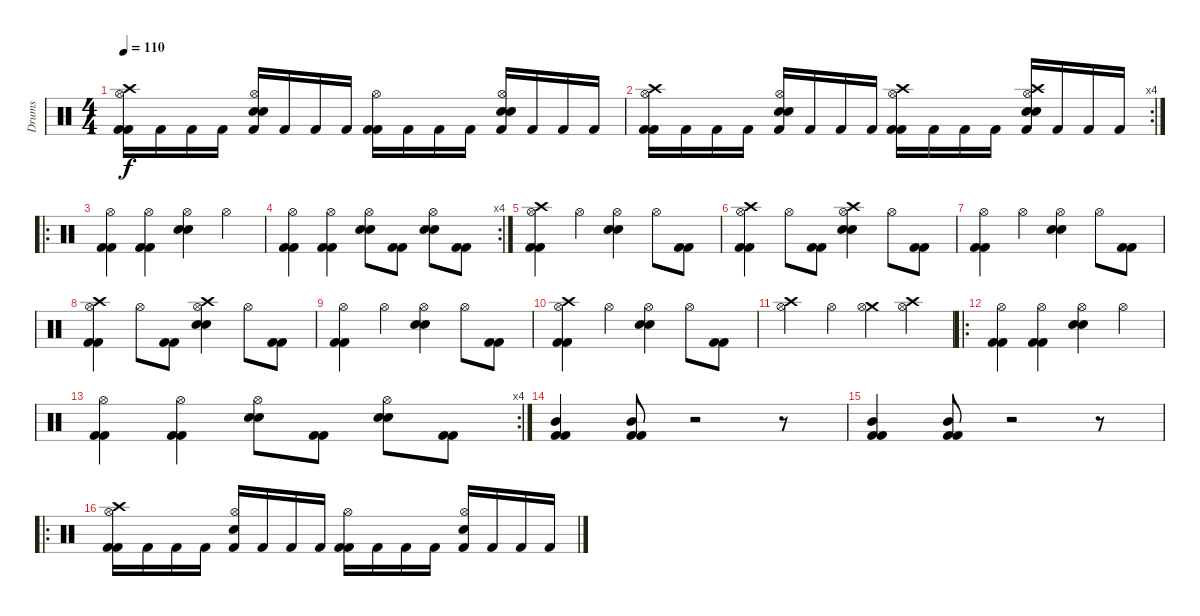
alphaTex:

\track ("Drums" "Drums") {instrument percussion}
\staff {score}
\articulation defaults
\ts (4 4)
\tempo 110
\clef neutral
\ks c
("Kick (hit) 2" "Kick (hit) 2" "Crash high (hit)" "Hi-Hat (open)").16{dy f} "Kick (hit) 2".16 "Kick (hit) 2".16 "Kick (hit) 2".16 ("Kick (hit) 2" "Electric Snare (hit)" "Electric Snare (hit)" "Hi-Hat (open)").16 "Kick (hit) 2".16 "Kick (hit) 2".16 "Kick (hit) 2".16 ("Kick (hit) 2" "Kick (hit) 2" "Hi-Hat (open)").16 "Kick (hit) 2".16 "Kick (hit) 2".16 "Kick (hit) 2".16 ("Kick (hit) 2" "Electric Snare (hit)" "Electric Snare (hit)" "Hi-Hat (open)").16 "Kick (hit) 2".16 "Kick (hit) 2".16 "Kick (hit) 2".16 |
\rc 4
("Kick (hit) 2" "Kick (hit) 2" "Crash high (hit)" "Hi-Hat (open)").16 "Kick (hit) 2".16 "Kick (hit) 2".16 "Kick (hit) 2".16 ("Kick (hit) 2" "Electric Snare (hit)" "Electric Snare (hit)" "Hi-Hat (open)").16 "Kick (hit) 2".16 "Kick (hit) 2".16 "Kick (hit) 2".16 ("Kick (hit) 2" "Kick (hit) 2" "Crash high (hit)" "Hi-Hat (open)").16 "Kick (hit) 2".16 "Kick (hit) 2".16 "Kick (hit) 2".16 ("Kick (hit) 2" "Electric Snare (hit)" "Electric Snare (hit)" "Crash high (hit)" "Hi-Hat (open)").16 "Kick (hit) 2".16 "Kick (hit) 2".16 "Kick (hit) 2".16 |
\ro
("Kick (hit) 2" "Kick (hit) 2" "Hi-Hat (open)").4 ("Kick (hit) 2" "Kick (hit) 2" "Hi-Hat (open)").4 ("Electric Snare (hit)" "Electric Snare (hit)" "Hi-Hat (open)").4 "Hi-Hat (open)".4 |
\rc 4
("Kick (hit) 2" "Kick (hit) 2" "Hi-Hat (open)").4 ("Kick (hit) 2" "Kick (hit) 2" "Hi-Hat (open)").4 ("Electric Snare (hit)" "Electric Snare (hit)" "Hi-Hat (open)").8 ("Kick (hit) 2" "Kick (hit) 2").8 ("Electric Snare (hit)" "Electric Snare (hit)" "Hi-Hat (open)").8 ("Kick (hit) 2" "Kick (hit) 2").8 |
("Kick (hit) 2" "Kick (hit) 2" "Crash high (hit)" "Hi-Hat (open)").4 "Hi-Hat (open)".4 ("Electric Snare (hit)" "Electric Snare (hit)" "Hi-Hat (open)").4 "Hi-Hat (open)".8 ("Kick (hit) 2" "Kick (hit) 2").8 |
("Kick (hit) 2" "Kick (hit) 2" "Crash high (hit)" "Hi-Hat (open)").4 "Hi-Hat (open)".8 ("Kick (hit) 2" "Kick (hit) 2").8 ("Electric Snare (hit)" "Electric Snare (hit)" "Crash high (hit)" "Hi-Hat (open)").4 "Hi-Hat (open)".8 ("Kick (hit) 2" "Kick (hit) 2").8 |
("Kick (hit) 2" "Kick (hit) 2" "Hi-Hat (open)").4 "Hi-Hat (open)".4 ("Electric Snare (hit)" "Electric Snare (hit)" "Hi-Hat (open)").4 "Hi-Hat (open)".8 ("Kick (hit) 2" "Kick (hit) 2").8 |
("Kick (hit) 2" "Kick (hit) 2" "Crash high (hit)" "Hi-Hat (open)").4 "Hi-Hat (open)".8 ("Kick (hit) 2" "Kick (hit) 2").8 ("Electric Snare (hit)" "Electric Snare (hit)" "Crash high (hit)" "Hi-Hat (open)").4 "Hi-Hat (open)".8 ("Kick (hit) 2" "Kick (hit) 2").8 |
("Kick (hit) 2" "Kick (hit) 2" "Hi-Hat (open)").4 "Hi-Hat (open)".4 ("Electric Snare (hit)" "Electric Snare (hit)" "Hi-Hat (open)").4 "Hi-Hat (open)".8 ("Kick (hit) 2" "Kick (hit) 2").8 |
("Kick (hit) 2" "Kick (hit) 2" "Crash high (hit)" "Hi-Hat (open)").4 "Hi-Hat (open)".4 ("Electric Snare (hit)" "Electric Snare (hit)" "Hi-Hat (open)").4 "Hi-Hat (open)".8 ("Kick (hit) 2" "Kick (hit) 2").8 |
("Crash high (hit)" "Hi-Hat (open)").4 "Hi-Hat (open)".4 ("Crash medium (hit)" "Hi-Hat (open)").4 ("Crash high (hit)" "Hi-Hat (open)").4 |
\ro
("Kick (hit) 2" "Kick (hit) 2" "Hi-Hat (open)").4 ("Kick (hit) 2" "Kick (hit) 2" "Hi-Hat (open)").4 ("Electric Snare (hit)" "Electric Snare (hit)" "Hi-Hat (open)").4 "Hi-Hat (open)".4 |
\rc 4
("Kick (hit) 2" "Kick (hit) 2" "Hi-Hat (open)").4 ("Kick (hit) 2" "Kick (hit) 2" "Hi-Hat (open)").4 ("Electric Snare (hit)" "Electric Snare (hit)" "Hi-Hat (open)").8 ("Kick (hit) 2" "Kick (hit) 2").8 ("Electric Snare (hit)" "Electric Snare (hit)" "Hi-Hat (open)").8 ("Kick (hit) 2" "Kick (hit) 2").8 |
("Kick (hit) 2" "Kick (hit) 2" "Mid Tom (hit)").4 ("Kick (hit) 2" "Kick (hit) 2" "Mid Tom (hit)").8 r.2 r.8 |
("Kick (hit) 2" "Kick (hit) 2" "Mid Tom (hit)").4 ("Kick (hit) 2" "Kick (hit) 2" "Mid Tom (hit)").8 r.2 r.8 |
\ro
("Kick (hit) 2" "Kick (hit) 2" "Crash high (hit)" "Hi-Hat (open)").16 "Kick (hit) 2".16 "Kick (hit) 2".16 "Kick (hit) 2".16 ("Kick (hit) 2" "Electric Snare (hit)" "Hi-Hat (open)").16 "Kick (hit) 2".16 "Kick (hit) 2".16 "Kick (hit) 2".16 ("Kick (hit) 2" "Kick (hit) 2" "Hi-Hat (open)").16 "Kick (hit) 2".16 "Kick (hit) 2".16 "Kick (hit) 2".16 ("Kick (hit) 2" "Electric Snare (hit)" "Hi-Hat (open)").16 "Kick (hit) 2".16 "Kick (hit) 2".16 "Kick (hit) 2".16
